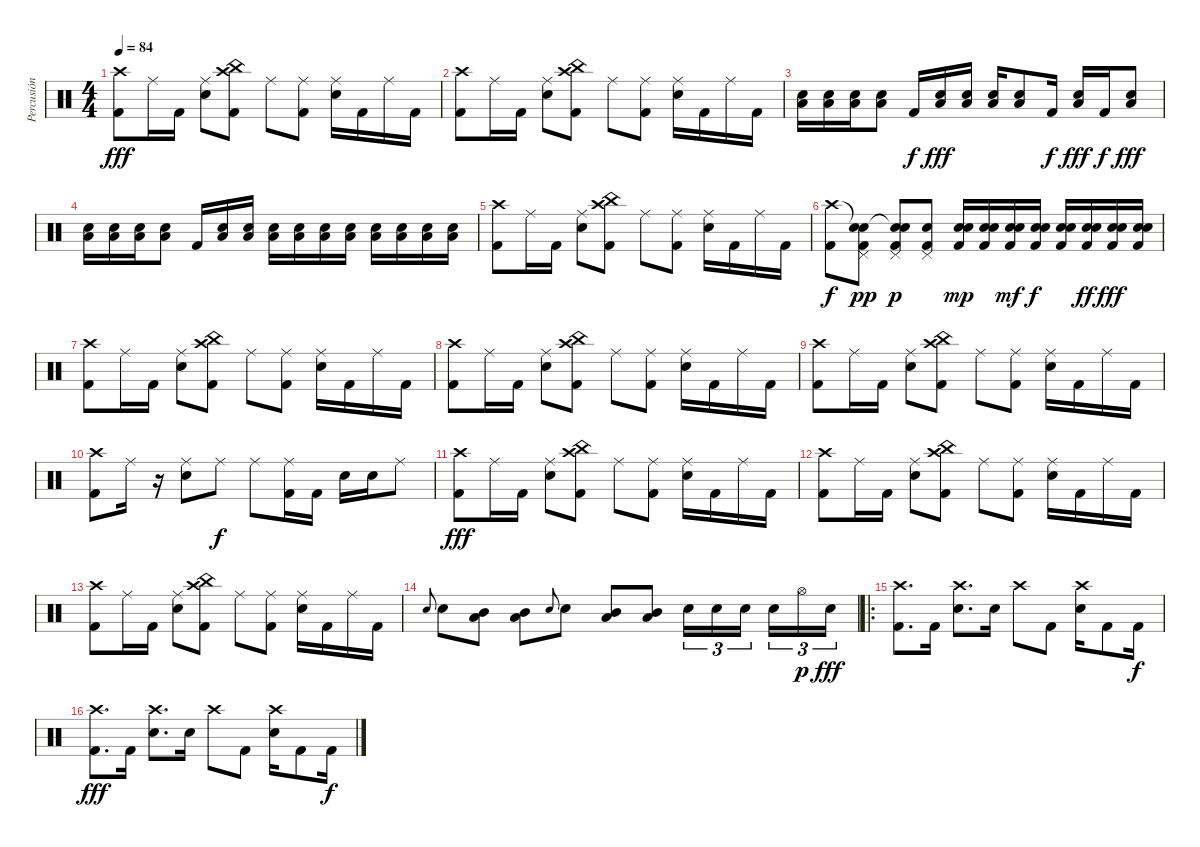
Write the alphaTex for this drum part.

\track ("Percusión" "Percusión") {instrument percussion}
\staff {score}
\articulation defaults
\ts (4 4)
\tempo 84
\clef neutral
\ks c
("Crash high (hit)" "Kick (hit) 2").8{dy fff} "Ride (middle)".16 "Kick (hit) 2".16 ("Ride (middle)" "Snare (hit) 2").8 ("Crash high (hit)" "China (hit)" "Kick (hit) 2").8 "Ride (middle)".8 ("Ride (middle)" "Kick (hit) 2").8 ("Ride (middle)" "Snare (hit) 2").16 "Kick (hit) 2".16 "Ride (middle)".16 "Kick (hit) 2".16 |
("Crash high (hit)" "Kick (hit) 2").8 "Ride (middle)".16 "Kick (hit) 2".16 ("Ride (middle)" "Snare (hit) 2").8 ("Crash high (hit)" "China (hit)" "Kick (hit) 2").8 "Ride (middle)".8 ("Ride (middle)" "Kick (hit) 2").8 ("Ride (middle)" "Snare (hit) 2").16 "Kick (hit) 2".16 "Ride (middle)".16 "Kick (hit) 2".16 |
("Snare (hit) 2" "Low Floor Tom (hit)").16 ("Snare (hit) 2" "Low Floor Tom (hit)").16 ("Snare (hit) 2" "Low Floor Tom (hit)").16 ("Snare (hit) 2" "Low Floor Tom (hit)").8 "Kick (hit) 2".16{dy f} ("Snare (hit) 2" "Low Floor Tom (hit)").16{dy fff} ("Snare (hit) 2" "Low Floor Tom (hit)").16 ("Snare (hit) 2" "Low Floor Tom (hit)").16 ("Snare (hit) 2" "Low Floor Tom (hit)").8 "Kick (hit) 2".16{dy f} ("Snare (hit) 2" "Low Floor Tom (hit)").16{dy fff} "Kick (hit) 2".16{dy f} ("Snare (hit) 2" "Low Floor Tom (hit)").8{dy fff} |
("Snare (hit) 2" "Low Floor Tom (hit)").16 ("Snare (hit) 2" "Low Floor Tom (hit)").16 ("Snare (hit) 2" "Low Floor Tom (hit)").16 ("Snare (hit) 2" "Low Floor Tom (hit)").8 "Kick (hit) 2".16 ("Snare (hit) 2" "Low Floor Tom (hit)").16 ("Snare (hit) 2" "Low Floor Tom (hit)").16 ("Snare (hit) 2" "Low Floor Tom (hit)").16 ("Snare (hit) 2" "Low Floor Tom (hit)").16 ("Snare (hit) 2" "Low Floor Tom (hit)").16 ("Snare (hit) 2" "Low Floor Tom (hit)").16 ("Snare (hit) 2" "Low Floor Tom (hit)").16 ("Snare (hit) 2" "Low Floor Tom (hit)").16 ("Snare (hit) 2" "Low Floor Tom (hit)").16 ("Snare (hit) 2" "Low Floor Tom (hit)").16 |
("Crash high (hit)" "Kick (hit) 2").8 "Ride (middle)".16 "Kick (hit) 2".16 ("Ride (middle)" "Snare (hit) 2").8 ("Crash high (hit)" "China (hit)" "Kick (hit) 2").8 "Ride (middle)".8 ("Ride (middle)" "Kick (hit) 2").8 ("Ride (middle)" "Snare (hit) 2").16 "Kick (hit) 2".16 "Ride (middle)".16 "Kick (hit) 2".16 |
("Crash high (hit)" "Kick (hit) 2").8{dy f} ("Snare (hit)"{t} "Pedal Hi-Hat (hit)" "Electric Snare (hit)" "Kick (hit) 2").8{dy pp} ("Snare (hit)"{t} "Pedal Hi-Hat (hit)" "Electric Snare (hit)" "Kick (hit) 2").8{dy p} ("Pedal Hi-Hat (hit)" "Electric Snare (hit)" "Kick (hit) 2").8 ("Snare (hit) 2" "Electric Snare (hit)" "Kick (hit) 2").16{dy mp} ("Snare (hit) 2" "Electric Snare (hit)" "Kick (hit) 2").16 ("Snare (hit) 2" "Electric Snare (hit)" "Kick (hit) 2").16{dy mf} ("Snare (hit) 2" "Electric Snare (hit)" "Kick (hit) 2").16{dy f} ("Snare (hit) 2" "Electric Snare (hit)" "Kick (hit) 2").16 ("Snare (hit) 2" "Electric Snare (hit)" "Kick (hit) 2").16{dy ff} ("Snare (hit) 2" "Electric Snare (hit)" "Kick (hit) 2").16{dy fff} ("Snare (hit) 2" "Electric Snare (hit)" "Kick (hit) 2").16 |
("Crash high (hit)" "Kick (hit) 2").8 "Ride (middle)".16 "Kick (hit) 2".16 ("Ride (middle)" "Snare (hit) 2").8 ("Crash high (hit)" "China (hit)" "Kick (hit) 2").8 "Ride (middle)".8 ("Ride (middle)" "Kick (hit) 2").8 ("Ride (middle)" "Snare (hit) 2").16 "Kick (hit) 2".16 "Ride (middle)".16 "Kick (hit) 2".16 |
("Crash high (hit)" "Kick (hit) 2").8 "Ride (middle)".16 "Kick (hit) 2".16 ("Ride (middle)" "Snare (hit) 2").8 ("Crash high (hit)" "China (hit)" "Kick (hit) 2").8 "Ride (middle)".8 ("Ride (middle)" "Kick (hit) 2").8 ("Ride (middle)" "Snare (hit) 2").16 "Kick (hit) 2".16 "Ride (middle)".16 "Kick (hit) 2".16 |
("Crash high (hit)" "Kick (hit) 2").8 "Ride (middle)".16 "Kick (hit) 2".16 ("Ride (middle)" "Snare (hit) 2").8 ("Crash high (hit)" "China (hit)" "Kick (hit) 2").8 "Ride (middle)".8 ("Ride (middle)" "Kick (hit) 2").8 ("Ride (middle)" "Snare (hit) 2").16 "Kick (hit) 2".16 "Ride (middle)".16 "Kick (hit) 2".16 |
("Crash high (hit)" "Kick (hit) 2").8 "Ride (middle)".16 r.16 ("Ride (middle)" "Snare (hit) 2").8 "Ride (middle)".8{dy f} "Ride (middle)".8 ("Ride (middle)" "Kick (hit) 2").16 "Kick (hit) 2".16 "Snare (hit) 2".16 "Snare (hit) 2".16 "Ride (middle)".8 |
("Crash high (hit)" "Kick (hit) 2").8{dy fff} "Ride (middle)".16 "Kick (hit) 2".16 ("Ride (middle)" "Snare (hit) 2").8 ("Crash high (hit)" "China (hit)" "Kick (hit) 2").8 "Ride (middle)".8 ("Ride (middle)" "Kick (hit) 2").8 ("Ride (middle)" "Snare (hit) 2").16 "Kick (hit) 2".16 "Ride (middle)".16 "Kick (hit) 2".16 |
("Crash high (hit)" "Kick (hit) 2").8 "Ride (middle)".16 "Kick (hit) 2".16 ("Ride (middle)" "Snare (hit) 2").8 ("Crash high (hit)" "China (hit)" "Kick (hit) 2").8 "Ride (middle)".8 ("Ride (middle)" "Kick (hit) 2").8 ("Ride (middle)" "Snare (hit) 2").16 "Kick (hit) 2".16 "Ride (middle)".16 "Kick (hit) 2".16 |
("Crash high (hit)" "Kick (hit) 2").8 "Ride (middle)".16 "Kick (hit) 2".16 ("Ride (middle)" "Snare (hit) 2").8 ("Crash high (hit)" "China (hit)" "Kick (hit) 2").8 "Ride (middle)".8 ("Ride (middle)" "Kick (hit) 2").8 ("Ride (middle)" "Snare (hit) 2").16 "Kick (hit) 2".16 "Ride (middle)".16 "Kick (hit) 2".16 |
"Snare (hit) 2".8{gr onbeat} "Snare (hit) 2".8 ("Low Tom (hit)" "Mid Tom (hit)").8 ("Mid Tom (hit)" "Low Tom (hit)").8 "Snare (hit) 2".8{gr onbeat} "Snare (hit) 2".8 ("Low Tom (hit)" "Mid Tom (hit)").8 ("Low Tom (hit)" "Mid Tom (hit)").8 "Snare (hit) 2".16{tu (3 2)} "Snare (hit) 2".16{tu (3 2)} "Snare (hit) 2".16{tu (3 2) beam splitsecondary} "Snare (hit) 2".16{tu (3 2)} "Hi-Hat (open)".16{tu (3 2) dy p} "Snare (hit) 2".16{tu (3 2) dy fff} |
\ro
("Crash high (hit)" "Kick (hit) 2").8{d} "Kick (hit) 2".16 ("Crash high (hit)" "Snare (hit) 2").8{d} "Snare (hit) 2".16 "Crash high (hit)".8 "Kick (hit) 2".8 ("Crash high (hit)" "Snare (hit) 2").16 "Kick (hit) 2".8 "Kick (hit) 2".16{dy f} |
("Crash high (hit)" "Kick (hit) 2").8{d dy fff} "Kick (hit) 2".16 ("Crash high (hit)" "Snare (hit) 2").8{d} "Snare (hit) 2".16 "Crash high (hit)".8 "Kick (hit) 2".8 ("Crash high (hit)" "Snare (hit) 2").16 "Kick (hit) 2".8 "Kick (hit) 2".16{dy f}
